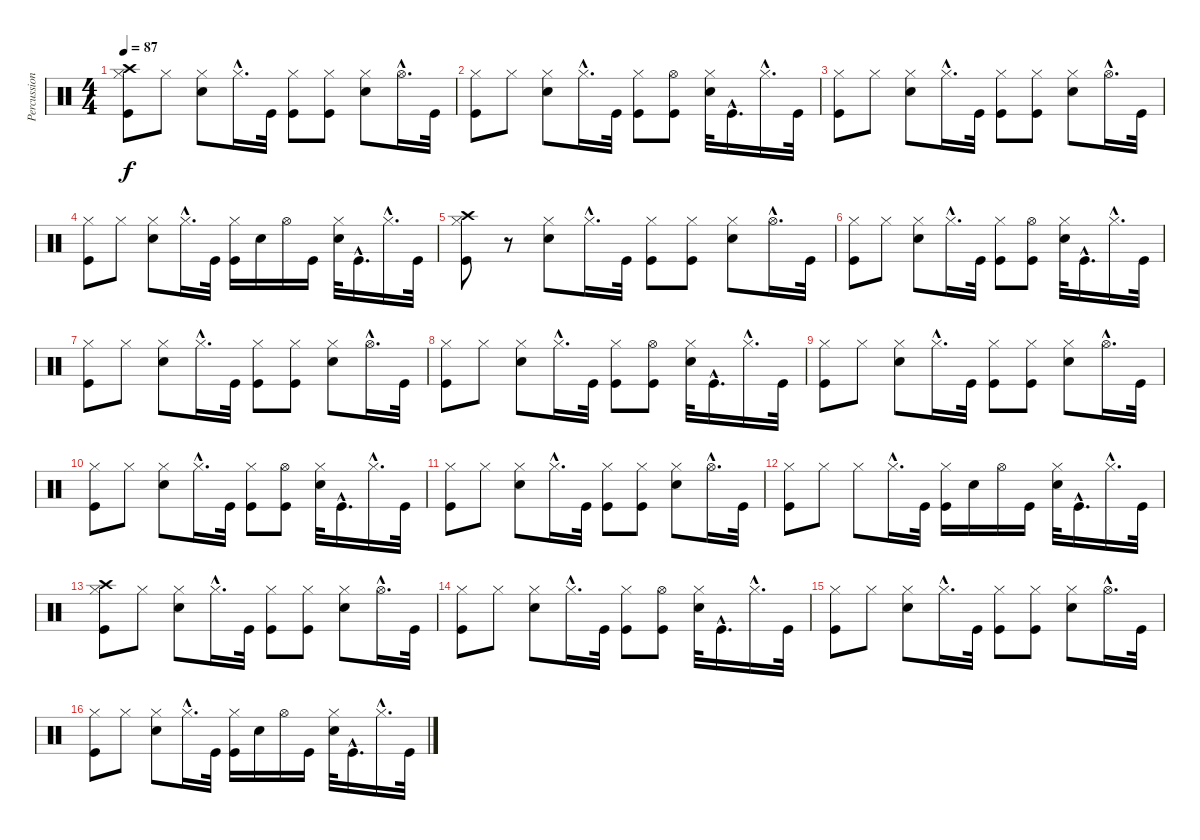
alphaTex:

\track ("Percussion" "Percussion") {instrument percussion}
\staff {score}
\articulation defaults
\ts (4 4)
\tempo 87
\clef neutral
\ks c
("Crash high (hit)" "Hi-Hat (closed)" "Kick (hit)").8{dy f} "Hi-Hat (closed)".8 ("Hi-Hat (closed)" "Electric Snare (hit)").8 "Hi-Hat (closed)"{hac}.16{d} "Kick (hit)".32 ("Hi-Hat (closed)" "Kick (hit)").8 ("Hi-Hat (closed)" "Kick (hit)").8 ("Hi-Hat (closed)" "Electric Snare (hit)").8 "Hi-Hat (open)"{hac}.16{d} "Kick (hit)".32 |
("Hi-Hat (closed)" "Kick (hit)").8 "Hi-Hat (closed)".8 ("Hi-Hat (closed)" "Electric Snare (hit)").8 "Hi-Hat (closed)"{hac}.16{d} "Kick (hit)".32 ("Hi-Hat (closed)" "Kick (hit)").8 ("Hi-Hat (open)" "Kick (hit)").8 ("Hi-Hat (closed)" "Electric Snare (hit)").32 "Kick (hit)"{hac}.16{d} "Hi-Hat (closed)"{hac}.16{d} "Kick (hit)".32 |
("Hi-Hat (closed)" "Kick (hit)").8 "Hi-Hat (closed)".8 ("Hi-Hat (closed)" "Electric Snare (hit)").8 "Hi-Hat (closed)"{hac}.16{d} "Kick (hit)".32 ("Hi-Hat (closed)" "Kick (hit)").8 ("Hi-Hat (closed)" "Kick (hit)").8 ("Hi-Hat (closed)" "Electric Snare (hit)").8 "Hi-Hat (open)"{hac}.16{d} "Kick (hit)".32 |
("Hi-Hat (closed)" "Kick (hit)").8 "Hi-Hat (closed)".8 ("Hi-Hat (closed)" "Electric Snare (hit)").8 "Hi-Hat (closed)"{hac}.16{d} "Kick (hit)".32 ("Hi-Hat (closed)" "Kick (hit)").16 "Electric Snare (hit)".16 "Hi-Hat (open)".16 "Kick (hit)".16 ("Hi-Hat (closed)" "Electric Snare (hit)").32 "Kick (hit)"{hac}.16{d} "Hi-Hat (closed)"{hac}.16{d} "Kick (hit)".32 |
("Crash high (hit)" "Hi-Hat (closed)" "Kick (hit)").8 r.8 ("Hi-Hat (closed)" "Electric Snare (hit)").8 "Hi-Hat (closed)"{hac}.16{d} "Kick (hit)".32 ("Hi-Hat (closed)" "Kick (hit)").8 ("Hi-Hat (closed)" "Kick (hit)").8 ("Hi-Hat (closed)" "Electric Snare (hit)").8 "Hi-Hat (open)"{hac}.16{d} "Kick (hit)".32 |
("Hi-Hat (closed)" "Kick (hit)").8 "Hi-Hat (closed)".8 ("Hi-Hat (closed)" "Electric Snare (hit)").8 "Hi-Hat (closed)"{hac}.16{d} "Kick (hit)".32 ("Hi-Hat (closed)" "Kick (hit)").8 ("Hi-Hat (open)" "Kick (hit)").8 ("Hi-Hat (closed)" "Electric Snare (hit)").32 "Kick (hit)"{hac}.16{d} "Hi-Hat (closed)"{hac}.16{d} "Kick (hit)".32 |
("Hi-Hat (closed)" "Kick (hit)").8 "Hi-Hat (closed)".8 ("Hi-Hat (closed)" "Electric Snare (hit)").8 "Hi-Hat (closed)"{hac}.16{d} "Kick (hit)".32 ("Hi-Hat (closed)" "Kick (hit)").8 ("Hi-Hat (closed)" "Kick (hit)").8 ("Hi-Hat (closed)" "Electric Snare (hit)").8 "Hi-Hat (open)"{hac}.16{d} "Kick (hit)".32 |
("Hi-Hat (closed)" "Kick (hit)").8 "Hi-Hat (closed)".8 ("Hi-Hat (closed)" "Electric Snare (hit)").8 "Hi-Hat (closed)"{hac}.16{d} "Kick (hit)".32 ("Hi-Hat (closed)" "Kick (hit)").8 ("Hi-Hat (open)" "Kick (hit)").8 ("Hi-Hat (closed)" "Electric Snare (hit)").32 "Kick (hit)"{hac}.16{d} "Hi-Hat (closed)"{hac}.16{d} "Kick (hit)".32 |
("Hi-Hat (closed)" "Kick (hit)").8 "Hi-Hat (closed)".8 ("Hi-Hat (closed)" "Electric Snare (hit)").8 "Hi-Hat (closed)"{hac}.16{d} "Kick (hit)".32 ("Hi-Hat (closed)" "Kick (hit)").8 ("Hi-Hat (closed)" "Kick (hit)").8 ("Hi-Hat (closed)" "Electric Snare (hit)").8 "Hi-Hat (open)"{hac}.16{d} "Kick (hit)".32 |
("Hi-Hat (closed)" "Kick (hit)").8 "Hi-Hat (closed)".8 ("Hi-Hat (closed)" "Electric Snare (hit)").8 "Hi-Hat (closed)"{hac}.16{d} "Kick (hit)".32 ("Hi-Hat (closed)" "Kick (hit)").8 ("Hi-Hat (open)" "Kick (hit)").8 ("Hi-Hat (closed)" "Electric Snare (hit)").32 "Kick (hit)"{hac}.16{d} "Hi-Hat (closed)"{hac}.16{d} "Kick (hit)".32 |
("Hi-Hat (closed)" "Kick (hit)").8 "Hi-Hat (closed)".8 ("Hi-Hat (closed)" "Electric Snare (hit)").8 "Hi-Hat (closed)"{hac}.16{d} "Kick (hit)".32 ("Hi-Hat (closed)" "Kick (hit)").8 ("Hi-Hat (closed)" "Kick (hit)").8 ("Hi-Hat (closed)" "Electric Snare (hit)").8 "Hi-Hat (open)"{hac}.16{d} "Kick (hit)".32 |
("Hi-Hat (closed)" "Kick (hit)").8 "Hi-Hat (closed)".8 "Hi-Hat (closed)".8 "Hi-Hat (closed)"{hac}.16{d} "Kick (hit)".32 ("Hi-Hat (closed)" "Kick (hit)").16 "Electric Snare (hit)".16 "Hi-Hat (open)".16 "Kick (hit)".16 ("Hi-Hat (closed)" "Electric Snare (hit)").32 "Kick (hit)"{hac}.16{d} "Hi-Hat (closed)"{hac}.16{d} "Kick (hit)".32 |
("Crash high (hit)" "Hi-Hat (closed)" "Kick (hit)").8 "Hi-Hat (closed)".8 ("Hi-Hat (closed)" "Electric Snare (hit)").8 "Hi-Hat (closed)"{hac}.16{d} "Kick (hit)".32 ("Hi-Hat (closed)" "Kick (hit)").8 ("Hi-Hat (closed)" "Kick (hit)").8 ("Hi-Hat (closed)" "Electric Snare (hit)").8 "Hi-Hat (open)"{hac}.16{d} "Kick (hit)".32 |
("Hi-Hat (closed)" "Kick (hit)").8 "Hi-Hat (closed)".8 ("Hi-Hat (closed)" "Electric Snare (hit)").8 "Hi-Hat (closed)"{hac}.16{d} "Kick (hit)".32 ("Hi-Hat (closed)" "Kick (hit)").8 ("Hi-Hat (open)" "Kick (hit)").8 ("Hi-Hat (closed)" "Electric Snare (hit)").32 "Kick (hit)"{hac}.16{d} "Hi-Hat (closed)"{hac}.16{d} "Kick (hit)".32 |
("Hi-Hat (closed)" "Kick (hit)").8 "Hi-Hat (closed)".8 ("Hi-Hat (closed)" "Electric Snare (hit)").8 "Hi-Hat (closed)"{hac}.16{d} "Kick (hit)".32 ("Hi-Hat (closed)" "Kick (hit)").8 ("Hi-Hat (closed)" "Kick (hit)").8 ("Hi-Hat (closed)" "Electric Snare (hit)").8 "Hi-Hat (open)"{hac}.16{d} "Kick (hit)".32 |
("Hi-Hat (closed)" "Kick (hit)").8 "Hi-Hat (closed)".8 ("Hi-Hat (closed)" "Electric Snare (hit)").8 "Hi-Hat (closed)"{hac}.16{d} "Kick (hit)".32 ("Hi-Hat (closed)" "Kick (hit)").16 "Electric Snare (hit)".16 "Hi-Hat (open)".16 "Kick (hit)".16 ("Hi-Hat (closed)" "Electric Snare (hit)").32 "Kick (hit)"{hac}.16{d} "Hi-Hat (closed)"{hac}.16{d} "Kick (hit)".32
